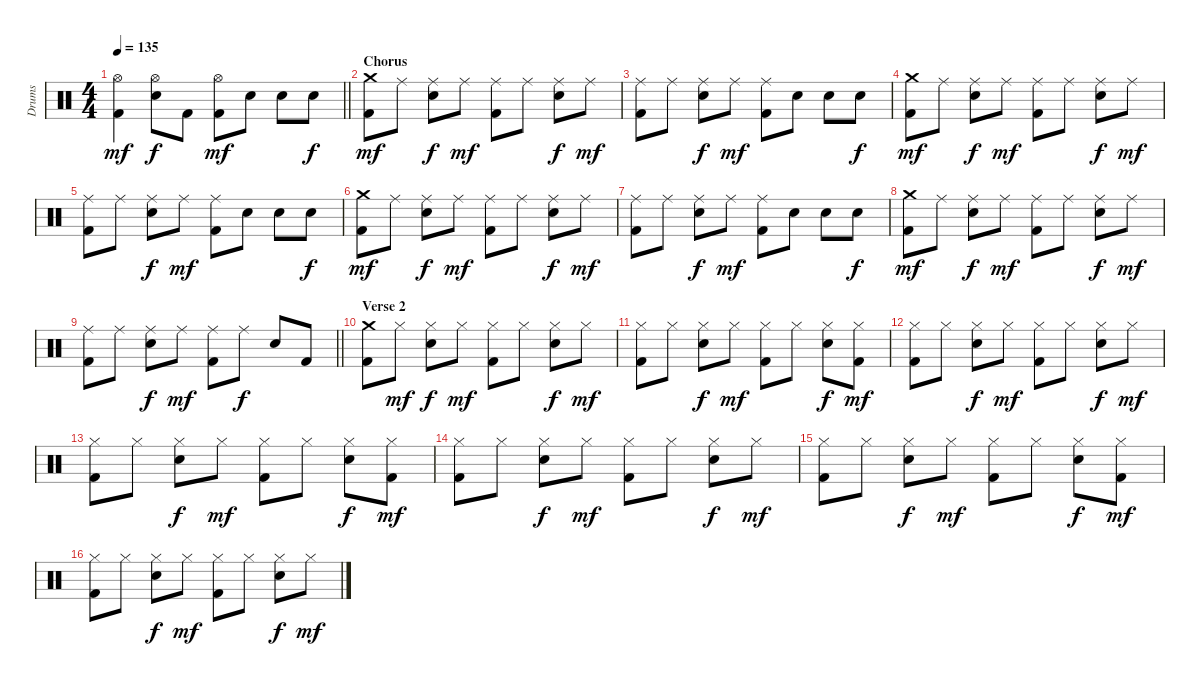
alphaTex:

\track ("Drums" "Drums") {instrument percussion}
\staff {score}
\articulation defaults
\ts (4 4)
\tempo 135
\clef neutral
\barLineRight lightlight
\ks c
("Hi-Hat (open)" "Kick (hit) 2").4{dy mf} ("Hi-Hat (open)" "Snare (hit) 2").8{dy f} "Kick (hit) 2".8 ("Hi-Hat (open)" "Kick (hit) 2").8{dy mf} "Snare (hit) 2".8 "Snare (hit) 2".8 "Snare (hit) 2".8{dy f} |
\section ("" "Chorus")
("Crash medium (hit)" "Kick (hit) 2").8{dy mf} "Ride (middle)".8 ("Ride (middle)" "Snare (hit) 2").8{dy f} "Ride (middle)".8{dy mf} ("Ride (middle)" "Kick (hit) 2").8 "Ride (middle)".8 ("Ride (middle)" "Snare (hit) 2").8{dy f} "Ride (middle)".8{dy mf} |
("Ride (middle)" "Kick (hit) 2").8 "Ride (middle)".8 ("Ride (middle)" "Snare (hit) 2").8{dy f} "Ride (middle)".8{dy mf} ("Ride (middle)" "Kick (hit) 2").8 "Snare (hit) 2".8 "Snare (hit) 2".8 "Snare (hit) 2".8{dy f} |
("Crash medium (hit)" "Kick (hit) 2").8{dy mf} "Ride (middle)".8 ("Ride (middle)" "Snare (hit) 2").8{dy f} "Ride (middle)".8{dy mf} ("Ride (middle)" "Kick (hit) 2").8 "Ride (middle)".8 ("Ride (middle)" "Snare (hit) 2").8{dy f} "Ride (middle)".8{dy mf} |
("Ride (middle)" "Kick (hit) 2").8 "Ride (middle)".8 ("Ride (middle)" "Snare (hit) 2").8{dy f} "Ride (middle)".8{dy mf} ("Ride (middle)" "Kick (hit) 2").8 "Snare (hit) 2".8 "Snare (hit) 2".8 "Snare (hit) 2".8{dy f} |
("Crash medium (hit)" "Kick (hit) 2").8{dy mf} "Ride (middle)".8 ("Ride (middle)" "Snare (hit) 2").8{dy f} "Ride (middle)".8{dy mf} ("Ride (middle)" "Kick (hit) 2").8 "Ride (middle)".8 ("Ride (middle)" "Snare (hit) 2").8{dy f} "Ride (middle)".8{dy mf} |
("Ride (middle)" "Kick (hit) 2").8 "Ride (middle)".8 ("Ride (middle)" "Snare (hit) 2").8{dy f} "Ride (middle)".8{dy mf} ("Ride (middle)" "Kick (hit) 2").8 "Snare (hit) 2".8 "Snare (hit) 2".8 "Snare (hit) 2".8{dy f} |
("Crash medium (hit)" "Kick (hit) 2").8{dy mf} "Ride (middle)".8 ("Ride (middle)" "Snare (hit) 2").8{dy f} "Ride (middle)".8{dy mf} ("Ride (middle)" "Kick (hit) 2").8 "Ride (middle)".8 ("Ride (middle)" "Snare (hit) 2").8{dy f} "Ride (middle)".8{dy mf} |
\barLineRight lightlight
("Ride (middle)" "Kick (hit) 2").8 "Ride (middle)".8 ("Ride (middle)" "Snare (hit) 2").8{dy f} "Ride (middle)".8{dy mf} ("Ride (middle)" "Kick (hit) 2").8 "Ride (middle)".8{dy f} "Snare (hit) 2".8 "Kick (hit) 2".8 |
\section ("" "Verse 2")
("Crash medium (hit)" "Kick (hit) 2").8 "Hi-Hat (closed)".8{dy mf} ("Hi-Hat (closed)" "Snare (hit) 2").8{dy f} "Hi-Hat (closed)".8{dy mf} ("Hi-Hat (closed)" "Kick (hit) 2").8 "Hi-Hat (closed)".8 ("Hi-Hat (closed)" "Snare (hit) 2").8{dy f} "Hi-Hat (closed)".8{dy mf} |
("Hi-Hat (closed)" "Kick (hit) 2").8 "Hi-Hat (closed)".8 ("Hi-Hat (closed)" "Snare (hit) 2").8{dy f} "Hi-Hat (closed)".8{dy mf} ("Hi-Hat (closed)" "Kick (hit) 2").8 "Hi-Hat (closed)".8 ("Hi-Hat (closed)" "Snare (hit) 2").8{dy f} ("Hi-Hat (closed)" "Kick (hit) 2").8{dy mf} |
("Hi-Hat (closed)" "Kick (hit) 2").8 "Hi-Hat (closed)".8 ("Hi-Hat (closed)" "Snare (hit) 2").8{dy f} "Hi-Hat (closed)".8{dy mf} ("Hi-Hat (closed)" "Kick (hit) 2").8 "Hi-Hat (closed)".8 ("Hi-Hat (closed)" "Snare (hit) 2").8{dy f} "Hi-Hat (closed)".8{dy mf} |
("Hi-Hat (closed)" "Kick (hit) 2").8 "Hi-Hat (closed)".8 ("Hi-Hat (closed)" "Snare (hit) 2").8{dy f} "Hi-Hat (closed)".8{dy mf} ("Hi-Hat (closed)" "Kick (hit) 2").8 "Hi-Hat (closed)".8 ("Hi-Hat (closed)" "Snare (hit) 2").8{dy f} ("Hi-Hat (closed)" "Kick (hit) 2").8{dy mf} |
("Hi-Hat (closed)" "Kick (hit) 2").8 "Hi-Hat (closed)".8 ("Hi-Hat (closed)" "Snare (hit) 2").8{dy f} "Hi-Hat (closed)".8{dy mf} ("Hi-Hat (closed)" "Kick (hit) 2").8 "Hi-Hat (closed)".8 ("Hi-Hat (closed)" "Snare (hit) 2").8{dy f} "Hi-Hat (closed)".8{dy mf} |
("Hi-Hat (closed)" "Kick (hit) 2").8 "Hi-Hat (closed)".8 ("Hi-Hat (closed)" "Snare (hit) 2").8{dy f} "Hi-Hat (closed)".8{dy mf} ("Hi-Hat (closed)" "Kick (hit) 2").8 "Hi-Hat (closed)".8 ("Hi-Hat (closed)" "Snare (hit) 2").8{dy f} ("Hi-Hat (closed)" "Kick (hit) 2").8{dy mf} |
("Hi-Hat (closed)" "Kick (hit) 2").8 "Hi-Hat (closed)".8 ("Hi-Hat (closed)" "Snare (hit) 2").8{dy f} "Hi-Hat (closed)".8{dy mf} ("Hi-Hat (closed)" "Kick (hit) 2").8 "Hi-Hat (closed)".8 ("Hi-Hat (closed)" "Snare (hit) 2").8{dy f} "Hi-Hat (closed)".8{dy mf}
